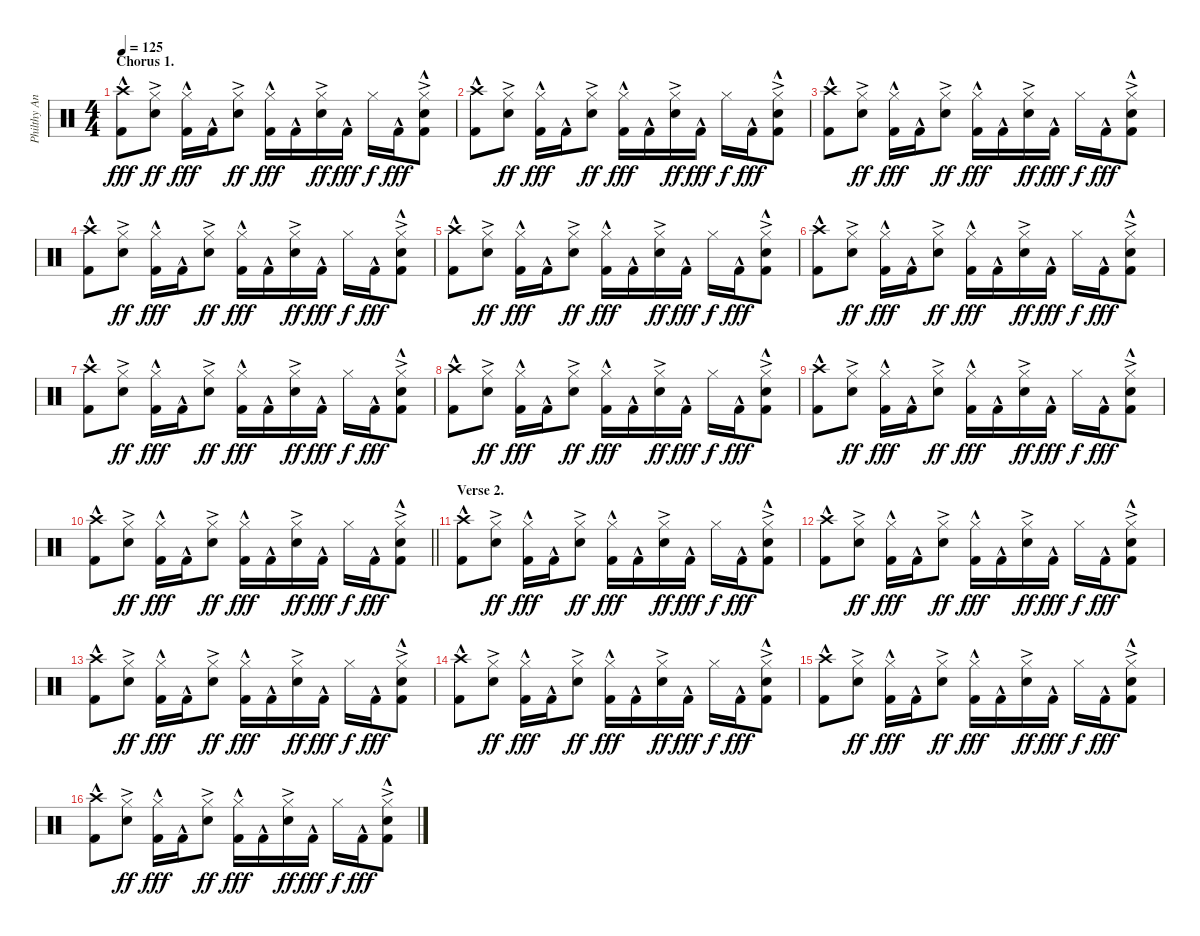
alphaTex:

\track ("Philthy Animal Taylor" "Philthy An") {instrument percussion}
\staff {score}
\articulation defaults
\ts (4 4)
\section ("" "Chorus 1.")
\tempo 125
\clef neutral
\ks c
("Crash high (hit)" "Kick (hit) 2"{hac}).8{dy fff} ("Hi-Hat (closed)" "Electric Snare (hit)"{ac}).8{dy ff} ("Hi-Hat (closed)" "Kick (hit) 2"{hac}).16{dy fff} "Kick (hit) 2"{hac}.16 ("Hi-Hat (closed)" "Electric Snare (hit)"{ac}).8{dy ff} ("Hi-Hat (closed)" "Kick (hit) 2"{hac}).16{dy fff} "Kick (hit) 2"{hac}.16 ("Hi-Hat (closed)" "Electric Snare (hit)"{ac}).16{dy ff} "Kick (hit) 2"{hac}.16{dy fff} "Hi-Hat (closed)".16{dy f} "Kick (hit) 2"{hac}.16{dy fff} ("Hi-Hat (closed)" "Electric Snare (hit)"{ac} "Kick (hit) 2"{hac}).8 |
("Crash high (hit)" "Kick (hit) 2"{hac}).8 ("Hi-Hat (closed)" "Electric Snare (hit)"{ac}).8{dy ff} ("Hi-Hat (closed)" "Kick (hit) 2"{hac}).16{dy fff} "Kick (hit) 2"{hac}.16 ("Hi-Hat (closed)" "Electric Snare (hit)"{ac}).8{dy ff} ("Hi-Hat (closed)" "Kick (hit) 2"{hac}).16{dy fff} "Kick (hit) 2"{hac}.16 ("Hi-Hat (closed)" "Electric Snare (hit)"{ac}).16{dy ff} "Kick (hit) 2"{hac}.16{dy fff} "Hi-Hat (closed)".16{dy f} "Kick (hit) 2"{hac}.16{dy fff} ("Hi-Hat (closed)" "Electric Snare (hit)"{ac} "Kick (hit) 2"{hac}).8 |
("Crash high (hit)" "Kick (hit) 2"{hac}).8 ("Hi-Hat (closed)" "Electric Snare (hit)"{ac}).8{dy ff} ("Hi-Hat (closed)" "Kick (hit) 2"{hac}).16{dy fff} "Kick (hit) 2"{hac}.16 ("Hi-Hat (closed)" "Electric Snare (hit)"{ac}).8{dy ff} ("Hi-Hat (closed)" "Kick (hit) 2"{hac}).16{dy fff} "Kick (hit) 2"{hac}.16 ("Hi-Hat (closed)" "Electric Snare (hit)"{ac}).16{dy ff} "Kick (hit) 2"{hac}.16{dy fff} "Hi-Hat (closed)".16{dy f} "Kick (hit) 2"{hac}.16{dy fff} ("Hi-Hat (closed)" "Electric Snare (hit)"{ac} "Kick (hit) 2"{hac}).8 |
("Crash high (hit)" "Kick (hit) 2"{hac}).8 ("Hi-Hat (closed)" "Electric Snare (hit)"{ac}).8{dy ff} ("Hi-Hat (closed)" "Kick (hit) 2"{hac}).16{dy fff} "Kick (hit) 2"{hac}.16 ("Hi-Hat (closed)" "Electric Snare (hit)"{ac}).8{dy ff} ("Hi-Hat (closed)" "Kick (hit) 2"{hac}).16{dy fff} "Kick (hit) 2"{hac}.16 ("Hi-Hat (closed)" "Electric Snare (hit)"{ac}).16{dy ff} "Kick (hit) 2"{hac}.16{dy fff} "Hi-Hat (closed)".16{dy f} "Kick (hit) 2"{hac}.16{dy fff} ("Hi-Hat (closed)" "Electric Snare (hit)"{ac} "Kick (hit) 2"{hac}).8 |
("Crash high (hit)" "Kick (hit) 2"{hac}).8 ("Hi-Hat (closed)" "Electric Snare (hit)"{ac}).8{dy ff} ("Hi-Hat (closed)" "Kick (hit) 2"{hac}).16{dy fff} "Kick (hit) 2"{hac}.16 ("Hi-Hat (closed)" "Electric Snare (hit)"{ac}).8{dy ff} ("Hi-Hat (closed)" "Kick (hit) 2"{hac}).16{dy fff} "Kick (hit) 2"{hac}.16 ("Hi-Hat (closed)" "Electric Snare (hit)"{ac}).16{dy ff} "Kick (hit) 2"{hac}.16{dy fff} "Hi-Hat (closed)".16{dy f} "Kick (hit) 2"{hac}.16{dy fff} ("Hi-Hat (closed)" "Electric Snare (hit)"{ac} "Kick (hit) 2"{hac}).8 |
("Crash high (hit)" "Kick (hit) 2"{hac}).8 ("Hi-Hat (closed)" "Electric Snare (hit)"{ac}).8{dy ff} ("Hi-Hat (closed)" "Kick (hit) 2"{hac}).16{dy fff} "Kick (hit) 2"{hac}.16 ("Hi-Hat (closed)" "Electric Snare (hit)"{ac}).8{dy ff} ("Hi-Hat (closed)" "Kick (hit) 2"{hac}).16{dy fff} "Kick (hit) 2"{hac}.16 ("Hi-Hat (closed)" "Electric Snare (hit)"{ac}).16{dy ff} "Kick (hit) 2"{hac}.16{dy fff} "Hi-Hat (closed)".16{dy f} "Kick (hit) 2"{hac}.16{dy fff} ("Hi-Hat (closed)" "Electric Snare (hit)"{ac} "Kick (hit) 2"{hac}).8 |
("Crash high (hit)" "Kick (hit) 2"{hac}).8 ("Hi-Hat (closed)" "Electric Snare (hit)"{ac}).8{dy ff} ("Hi-Hat (closed)" "Kick (hit) 2"{hac}).16{dy fff} "Kick (hit) 2"{hac}.16 ("Hi-Hat (closed)" "Electric Snare (hit)"{ac}).8{dy ff} ("Hi-Hat (closed)" "Kick (hit) 2"{hac}).16{dy fff} "Kick (hit) 2"{hac}.16 ("Hi-Hat (closed)" "Electric Snare (hit)"{ac}).16{dy ff} "Kick (hit) 2"{hac}.16{dy fff} "Hi-Hat (closed)".16{dy f} "Kick (hit) 2"{hac}.16{dy fff} ("Hi-Hat (closed)" "Electric Snare (hit)"{ac} "Kick (hit) 2"{hac}).8 |
("Crash high (hit)" "Kick (hit) 2"{hac}).8 ("Hi-Hat (closed)" "Electric Snare (hit)"{ac}).8{dy ff} ("Hi-Hat (closed)" "Kick (hit) 2"{hac}).16{dy fff} "Kick (hit) 2"{hac}.16 ("Hi-Hat (closed)" "Electric Snare (hit)"{ac}).8{dy ff} ("Hi-Hat (closed)" "Kick (hit) 2"{hac}).16{dy fff} "Kick (hit) 2"{hac}.16 ("Hi-Hat (closed)" "Electric Snare (hit)"{ac}).16{dy ff} "Kick (hit) 2"{hac}.16{dy fff} "Hi-Hat (closed)".16{dy f} "Kick (hit) 2"{hac}.16{dy fff} ("Hi-Hat (closed)" "Electric Snare (hit)"{ac} "Kick (hit) 2"{hac}).8 |
("Crash high (hit)" "Kick (hit) 2"{hac}).8 ("Hi-Hat (closed)" "Electric Snare (hit)"{ac}).8{dy ff} ("Hi-Hat (closed)" "Kick (hit) 2"{hac}).16{dy fff} "Kick (hit) 2"{hac}.16 ("Hi-Hat (closed)" "Electric Snare (hit)"{ac}).8{dy ff} ("Hi-Hat (closed)" "Kick (hit) 2"{hac}).16{dy fff} "Kick (hit) 2"{hac}.16 ("Hi-Hat (closed)" "Electric Snare (hit)"{ac}).16{dy ff} "Kick (hit) 2"{hac}.16{dy fff} "Hi-Hat (closed)".16{dy f} "Kick (hit) 2"{hac}.16{dy fff} ("Hi-Hat (closed)" "Electric Snare (hit)"{ac} "Kick (hit) 2"{hac}).8 |
\barLineRight lightlight
("Crash high (hit)" "Kick (hit) 2"{hac}).8 ("Hi-Hat (closed)" "Electric Snare (hit)"{ac}).8{dy ff} ("Hi-Hat (closed)" "Kick (hit) 2"{hac}).16{dy fff} "Kick (hit) 2"{hac}.16 ("Hi-Hat (closed)" "Electric Snare (hit)"{ac}).8{dy ff} ("Hi-Hat (closed)" "Kick (hit) 2"{hac}).16{dy fff} "Kick (hit) 2"{hac}.16 ("Hi-Hat (closed)" "Electric Snare (hit)"{ac}).16{dy ff} "Kick (hit) 2"{hac}.16{dy fff} "Hi-Hat (closed)".16{dy f} "Kick (hit) 2"{hac}.16{dy fff} ("Hi-Hat (closed)" "Electric Snare (hit)"{ac} "Kick (hit) 2"{hac}).8 |
\section ("" "Verse 2.")
("Crash high (hit)" "Kick (hit) 2"{hac}).8 ("Hi-Hat (closed)" "Electric Snare (hit)"{ac}).8{dy ff} ("Hi-Hat (closed)" "Kick (hit) 2"{hac}).16{dy fff} "Kick (hit) 2"{hac}.16 ("Hi-Hat (closed)" "Electric Snare (hit)"{ac}).8{dy ff} ("Hi-Hat (closed)" "Kick (hit) 2"{hac}).16{dy fff} "Kick (hit) 2"{hac}.16 ("Hi-Hat (closed)" "Electric Snare (hit)"{ac}).16{dy ff} "Kick (hit) 2"{hac}.16{dy fff} "Hi-Hat (closed)".16{dy f} "Kick (hit) 2"{hac}.16{dy fff} ("Hi-Hat (closed)" "Electric Snare (hit)"{ac} "Kick (hit) 2"{hac}).8 |
("Crash high (hit)" "Kick (hit) 2"{hac}).8 ("Hi-Hat (closed)" "Electric Snare (hit)"{ac}).8{dy ff} ("Hi-Hat (closed)" "Kick (hit) 2"{hac}).16{dy fff} "Kick (hit) 2"{hac}.16 ("Hi-Hat (closed)" "Electric Snare (hit)"{ac}).8{dy ff} ("Hi-Hat (closed)" "Kick (hit) 2"{hac}).16{dy fff} "Kick (hit) 2"{hac}.16 ("Hi-Hat (closed)" "Electric Snare (hit)"{ac}).16{dy ff} "Kick (hit) 2"{hac}.16{dy fff} "Hi-Hat (closed)".16{dy f} "Kick (hit) 2"{hac}.16{dy fff} ("Hi-Hat (closed)" "Electric Snare (hit)"{ac} "Kick (hit) 2"{hac}).8 |
("Crash high (hit)" "Kick (hit) 2"{hac}).8 ("Hi-Hat (closed)" "Electric Snare (hit)"{ac}).8{dy ff} ("Hi-Hat (closed)" "Kick (hit) 2"{hac}).16{dy fff} "Kick (hit) 2"{hac}.16 ("Hi-Hat (closed)" "Electric Snare (hit)"{ac}).8{dy ff} ("Hi-Hat (closed)" "Kick (hit) 2"{hac}).16{dy fff} "Kick (hit) 2"{hac}.16 ("Hi-Hat (closed)" "Electric Snare (hit)"{ac}).16{dy ff} "Kick (hit) 2"{hac}.16{dy fff} "Hi-Hat (closed)".16{dy f} "Kick (hit) 2"{hac}.16{dy fff} ("Hi-Hat (closed)" "Electric Snare (hit)"{ac} "Kick (hit) 2"{hac}).8 |
("Crash high (hit)" "Kick (hit) 2"{hac}).8 ("Hi-Hat (closed)" "Electric Snare (hit)"{ac}).8{dy ff} ("Hi-Hat (closed)" "Kick (hit) 2"{hac}).16{dy fff} "Kick (hit) 2"{hac}.16 ("Hi-Hat (closed)" "Electric Snare (hit)"{ac}).8{dy ff} ("Hi-Hat (closed)" "Kick (hit) 2"{hac}).16{dy fff} "Kick (hit) 2"{hac}.16 ("Hi-Hat (closed)" "Electric Snare (hit)"{ac}).16{dy ff} "Kick (hit) 2"{hac}.16{dy fff} "Hi-Hat (closed)".16{dy f} "Kick (hit) 2"{hac}.16{dy fff} ("Hi-Hat (closed)" "Electric Snare (hit)"{ac} "Kick (hit) 2"{hac}).8 |
("Crash high (hit)" "Kick (hit) 2"{hac}).8 ("Hi-Hat (closed)" "Electric Snare (hit)"{ac}).8{dy ff} ("Hi-Hat (closed)" "Kick (hit) 2"{hac}).16{dy fff} "Kick (hit) 2"{hac}.16 ("Hi-Hat (closed)" "Electric Snare (hit)"{ac}).8{dy ff} ("Hi-Hat (closed)" "Kick (hit) 2"{hac}).16{dy fff} "Kick (hit) 2"{hac}.16 ("Hi-Hat (closed)" "Electric Snare (hit)"{ac}).16{dy ff} "Kick (hit) 2"{hac}.16{dy fff} "Hi-Hat (closed)".16{dy f} "Kick (hit) 2"{hac}.16{dy fff} ("Hi-Hat (closed)" "Electric Snare (hit)"{ac} "Kick (hit) 2"{hac}).8 |
("Crash high (hit)" "Kick (hit) 2"{hac}).8 ("Hi-Hat (closed)" "Electric Snare (hit)"{ac}).8{dy ff} ("Hi-Hat (closed)" "Kick (hit) 2"{hac}).16{dy fff} "Kick (hit) 2"{hac}.16 ("Hi-Hat (closed)" "Electric Snare (hit)"{ac}).8{dy ff} ("Hi-Hat (closed)" "Kick (hit) 2"{hac}).16{dy fff} "Kick (hit) 2"{hac}.16 ("Hi-Hat (closed)" "Electric Snare (hit)"{ac}).16{dy ff} "Kick (hit) 2"{hac}.16{dy fff} "Hi-Hat (closed)".16{dy f} "Kick (hit) 2"{hac}.16{dy fff} ("Hi-Hat (closed)" "Electric Snare (hit)"{ac} "Kick (hit) 2"{hac}).8
